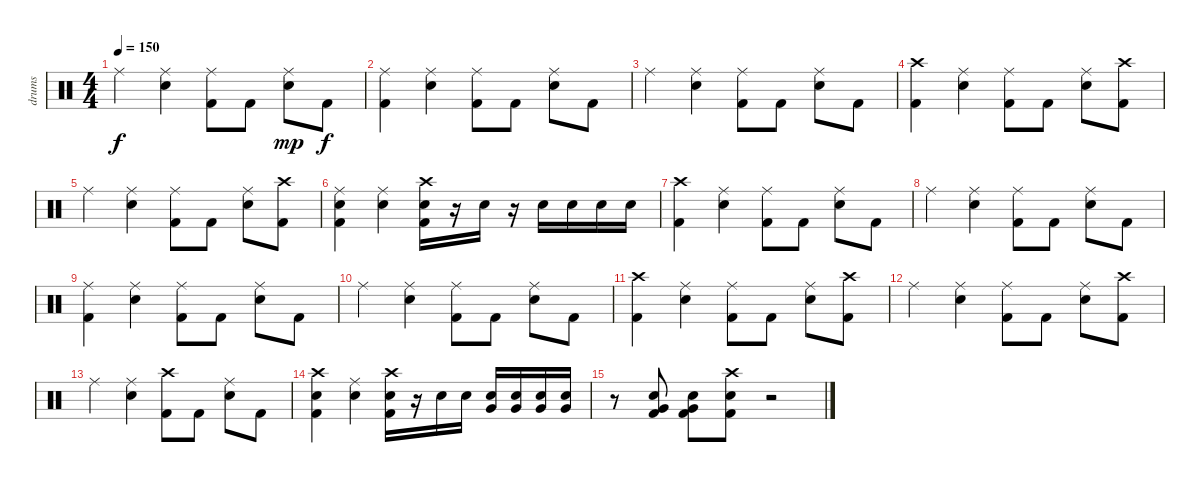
\track ("drums" "drums") {instrument percussion}
\staff {score}
\articulation defaults
\ts (4 4)
\tempo 150
\clef neutral
\ks c "Ride (middle)".4{dy f}
("Ride (middle)" "Snare (hit) 2").4 ("Ride (middle)" "Kick (hit) 2").8 "Kick (hit) 2".8 ("Ride (middle)" "Snare (hit) 2").8{dy mp} "Kick (hit) 2".8{dy f} |
("Ride (middle)" "Kick (hit) 2").4 ("Ride (middle)" "Snare (hit) 2").4 ("Ride (middle)" "Kick (hit) 2").8 "Kick (hit) 2".8 ("Ride (middle)" "Snare (hit) 2").8 "Kick (hit) 2".8 |
"Ride (middle)".4 ("Ride (middle)" "Snare (hit) 2").4 ("Ride (middle)" "Kick (hit) 2").8 "Kick (hit) 2".8 ("Ride (middle)" "Snare (hit) 2").8 "Kick (hit) 2".8 |
("Crash high (hit)" "Kick (hit) 2").4 ("Ride (middle)" "Snare (hit) 2").4 ("Ride (middle)" "Kick (hit) 2").8 "Kick (hit) 2".8 ("Ride (middle)" "Snare (hit) 2").8 ("Crash high (hit)" "Kick (hit) 2").8 |
"Ride (middle)".4 ("Ride (middle)" "Snare (hit) 2").4 ("Ride (middle)" "Kick (hit) 2").8 "Kick (hit) 2".8 ("Ride (middle)" "Snare (hit) 2").8 ("Crash high (hit)" "Kick (hit) 2").8 |
("Ride (middle)" "Snare (hit) 2" "Kick (hit) 2").4 ("Ride (middle)" "Snare (hit) 2").4 ("Crash high (hit)" "Snare (hit) 2" "Kick (hit) 2").16 r.16 "Snare (hit) 2".16 r.16 "Snare (hit) 2".16 "Snare (hit) 2".16 "Snare (hit) 2".16 "Snare (hit) 2".16 |
("Crash high (hit)" "Kick (hit) 2").4 ("Ride (middle)" "Snare (hit) 2").4 ("Ride (middle)" "Kick (hit) 2").8 "Kick (hit) 2".8 ("Ride (middle)" "Snare (hit) 2").8 "Kick (hit) 2".8 |
"Ride (middle)".4 ("Ride (middle)" "Snare (hit) 2").4 ("Ride (middle)" "Kick (hit) 2").8 "Kick (hit) 2".8 ("Ride (middle)" "Snare (hit) 2").8 "Kick (hit) 2".8 |
("Ride (middle)" "Kick (hit) 2").4 ("Ride (middle)" "Snare (hit) 2").4 ("Ride (middle)" "Kick (hit) 2").8 "Kick (hit) 2".8 ("Ride (middle)" "Snare (hit) 2").8 "Kick (hit) 2".8 |
"Ride (middle)".4 ("Ride (middle)" "Snare (hit) 2").4 ("Ride (middle)" "Kick (hit) 2").8 "Kick (hit) 2".8 ("Ride (middle)" "Snare (hit) 2").8 "Kick (hit) 2".8 |
("Crash high (hit)" "Kick (hit) 2").4 ("Ride (middle)" "Snare (hit) 2").4 ("Ride (middle)" "Kick (hit) 2").8 "Kick (hit) 2".8 ("Ride (middle)" "Snare (hit) 2").8 ("Crash high (hit)" "Kick (hit) 2").8 |
"Ride (middle)".4 ("Ride (middle)" "Snare (hit) 2").4 ("Ride (middle)" "Kick (hit) 2").8 "Kick (hit) 2".8 ("Ride (middle)" "Snare (hit) 2").8 ("Crash high (hit)" "Kick (hit) 2").8 |
"Ride (middle)".4 ("Ride (middle)" "Snare (hit) 2").4 ("Crash high (hit)" "Kick (hit) 2").8 "Kick (hit) 2".8 ("Ride (middle)" "Snare (hit) 2").8 "Kick (hit) 2".8 |
("Crash high (hit)" "Snare (hit) 2" "Kick (hit) 2").4 ("Ride (middle)" "Snare (hit) 2").4 ("Crash high (hit)" "Snare (hit) 2" "Kick (hit) 2").16 r.16 "Snare (hit) 2".16 "Snare (hit) 2".16 ("Very Low Tom (hit)" "Snare (hit) 2").16 ("Very Low Tom (hit)" "Snare (hit) 2").16 ("Very Low Tom (hit)" "Snare (hit) 2").16 ("Very Low Tom (hit)" "Snare (hit) 2").16 |
r.8 ("Very Low Tom (hit)" "Snare (hit) 2" "Kick (hit) 2").8 ("Very Low Tom (hit)" "Snare (hit) 2" "Kick (hit) 2").8 ("Crash high (hit)" "Snare (hit) 2" "Kick (hit) 2").8 r.2
